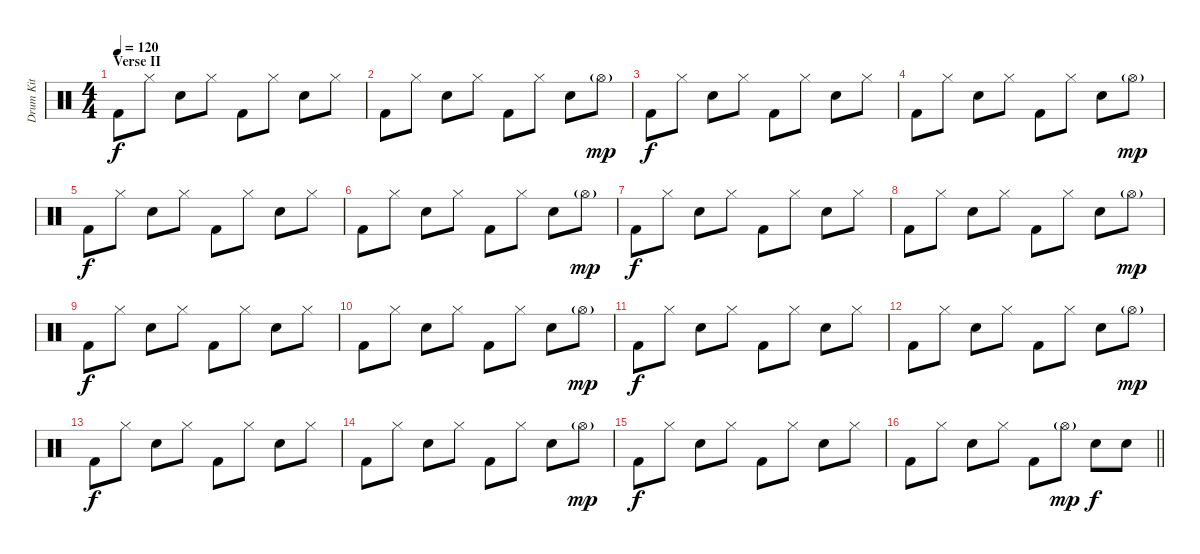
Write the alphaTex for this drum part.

\track ("Drum Kit" "Drum Kit") {instrument percussion}
\staff {score}
\articulation defaults
\ts (4 4)
\section ("" "Verse II")
\tempo 120
\clef neutral
\ks c "Kick (hit) 2".8{dy f} "Hi-Hat (closed)".8 "Electric Snare (hit)".8 "Hi-Hat (closed)".8 "Kick (hit) 2".8 "Hi-Hat (closed)".8 "Electric Snare (hit)".8 "Hi-Hat (closed)".8
|
"Kick (hit) 2".8 "Hi-Hat (closed)".8 "Electric Snare (hit)".8 "Hi-Hat (closed)".8 "Kick (hit) 2".8 "Hi-Hat (closed)".8 "Electric Snare (hit)".8 "Hi-Hat (open)"{g}.8{dy mp} |
"Kick (hit) 2".8{dy f} "Hi-Hat (closed)".8 "Electric Snare (hit)".8 "Hi-Hat (closed)".8 "Kick (hit) 2".8 "Hi-Hat (closed)".8 "Electric Snare (hit)".8 "Hi-Hat (closed)".8 |
"Kick (hit) 2".8 "Hi-Hat (closed)".8 "Electric Snare (hit)".8 "Hi-Hat (closed)".8 "Kick (hit) 2".8 "Hi-Hat (closed)".8 "Electric Snare (hit)".8 "Hi-Hat (open)"{g}.8{dy mp} |
"Kick (hit) 2".8{dy f} "Hi-Hat (closed)".8 "Electric Snare (hit)".8 "Hi-Hat (closed)".8 "Kick (hit) 2".8 "Hi-Hat (closed)".8 "Electric Snare (hit)".8 "Hi-Hat (closed)".8 |
"Kick (hit) 2".8 "Hi-Hat (closed)".8 "Electric Snare (hit)".8 "Hi-Hat (closed)".8 "Kick (hit) 2".8 "Hi-Hat (closed)".8 "Electric Snare (hit)".8 "Hi-Hat (open)"{g}.8{dy mp} |
"Kick (hit) 2".8{dy f} "Hi-Hat (closed)".8 "Electric Snare (hit)".8 "Hi-Hat (closed)".8 "Kick (hit) 2".8 "Hi-Hat (closed)".8 "Electric Snare (hit)".8 "Hi-Hat (closed)".8 |
"Kick (hit) 2".8 "Hi-Hat (closed)".8 "Electric Snare (hit)".8 "Hi-Hat (closed)".8 "Kick (hit) 2".8 "Hi-Hat (closed)".8 "Electric Snare (hit)".8 "Hi-Hat (open)"{g}.8{dy mp} |
"Kick (hit) 2".8{dy f} "Hi-Hat (closed)".8 "Electric Snare (hit)".8 "Hi-Hat (closed)".8 "Kick (hit) 2".8 "Hi-Hat (closed)".8 "Electric Snare (hit)".8 "Hi-Hat (closed)".8 |
"Kick (hit) 2".8 "Hi-Hat (closed)".8 "Electric Snare (hit)".8 "Hi-Hat (closed)".8 "Kick (hit) 2".8 "Hi-Hat (closed)".8 "Electric Snare (hit)".8 "Hi-Hat (open)"{g}.8{dy mp} |
"Kick (hit) 2".8{dy f} "Hi-Hat (closed)".8 "Electric Snare (hit)".8 "Hi-Hat (closed)".8 "Kick (hit) 2".8 "Hi-Hat (closed)".8 "Electric Snare (hit)".8 "Hi-Hat (closed)".8 |
"Kick (hit) 2".8 "Hi-Hat (closed)".8 "Electric Snare (hit)".8 "Hi-Hat (closed)".8 "Kick (hit) 2".8 "Hi-Hat (closed)".8 "Electric Snare (hit)".8 "Hi-Hat (open)"{g}.8{dy mp} |
"Kick (hit) 2".8{dy f} "Hi-Hat (closed)".8 "Electric Snare (hit)".8 "Hi-Hat (closed)".8 "Kick (hit) 2".8 "Hi-Hat (closed)".8 "Electric Snare (hit)".8 "Hi-Hat (closed)".8 |
"Kick (hit) 2".8 "Hi-Hat (closed)".8 "Electric Snare (hit)".8 "Hi-Hat (closed)".8 "Kick (hit) 2".8 "Hi-Hat (closed)".8 "Electric Snare (hit)".8 "Hi-Hat (open)"{g}.8{dy mp} |
"Kick (hit) 2".8{dy f} "Hi-Hat (closed)".8 "Electric Snare (hit)".8 "Hi-Hat (closed)".8 "Kick (hit) 2".8 "Hi-Hat (closed)".8 "Electric Snare (hit)".8 "Hi-Hat (closed)".8 |
\barLineRight lightlight "Kick (hit) 2".8 "Hi-Hat (closed)".8 "Electric Snare (hit)".8 "Hi-Hat (closed)".8 "Kick (hit) 2".8 "Hi-Hat (open)"{g}.8{dy mp} "Electric Snare (hit)".8{dy f} "Electric Snare (hit)".8
